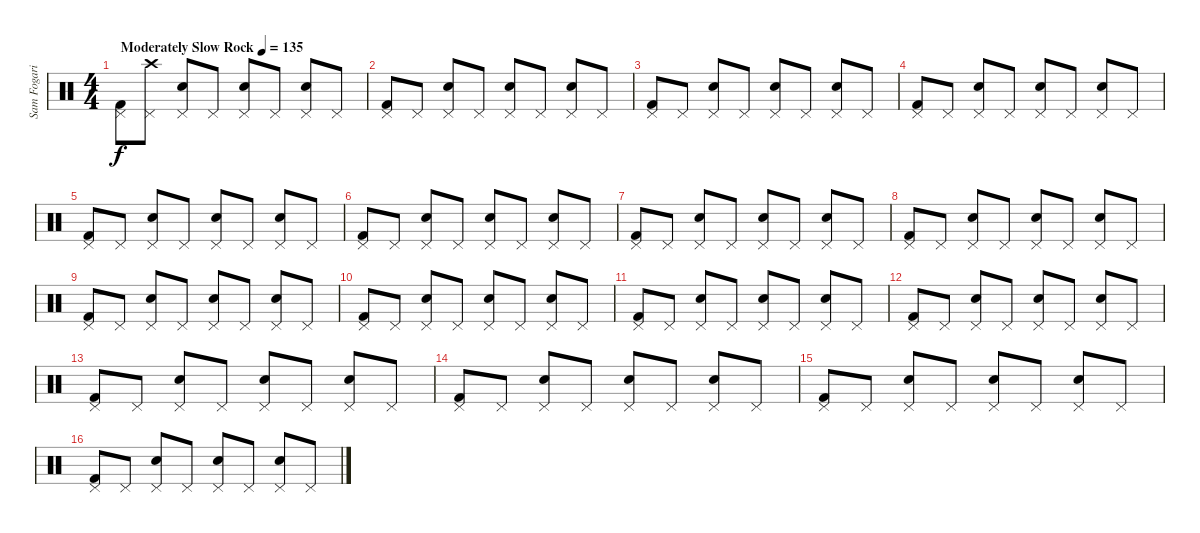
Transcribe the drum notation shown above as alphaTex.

\track ("Sam Fogarino" "Sam Fogari") {instrument percussion}
\staff {score}
\articulation defaults
\ts (4 4)
\tempo (135 "Moderately Slow Rock")
\clef neutral
\ks c
("Kick (hit) 2" "Pedal Hi-Hat (hit)").8{dy f} ("Crash high (hit)" "Pedal Hi-Hat (hit)").8 ("Electric Snare (hit)" "Pedal Hi-Hat (hit)").8 "Pedal Hi-Hat (hit)".8 ("Electric Snare (hit)" "Pedal Hi-Hat (hit)").8 "Pedal Hi-Hat (hit)".8 ("Electric Snare (hit)" "Pedal Hi-Hat (hit)").8 "Pedal Hi-Hat (hit)".8 |
("Kick (hit) 2" "Pedal Hi-Hat (hit)").8 "Pedal Hi-Hat (hit)".8 ("Electric Snare (hit)" "Pedal Hi-Hat (hit)").8 "Pedal Hi-Hat (hit)".8 ("Electric Snare (hit)" "Pedal Hi-Hat (hit)").8 "Pedal Hi-Hat (hit)".8 ("Electric Snare (hit)" "Pedal Hi-Hat (hit)").8 "Pedal Hi-Hat (hit)".8 |
("Kick (hit) 2" "Pedal Hi-Hat (hit)").8 "Pedal Hi-Hat (hit)".8 ("Electric Snare (hit)" "Pedal Hi-Hat (hit)").8 "Pedal Hi-Hat (hit)".8 ("Electric Snare (hit)" "Pedal Hi-Hat (hit)").8 "Pedal Hi-Hat (hit)".8 ("Electric Snare (hit)" "Pedal Hi-Hat (hit)").8 "Pedal Hi-Hat (hit)".8 |
("Kick (hit) 2" "Pedal Hi-Hat (hit)").8 "Pedal Hi-Hat (hit)".8 ("Electric Snare (hit)" "Pedal Hi-Hat (hit)").8 "Pedal Hi-Hat (hit)".8 ("Electric Snare (hit)" "Pedal Hi-Hat (hit)").8 "Pedal Hi-Hat (hit)".8 ("Electric Snare (hit)" "Pedal Hi-Hat (hit)").8 "Pedal Hi-Hat (hit)".8 |
("Kick (hit) 2" "Pedal Hi-Hat (hit)").8 "Pedal Hi-Hat (hit)".8 ("Electric Snare (hit)" "Pedal Hi-Hat (hit)").8 "Pedal Hi-Hat (hit)".8 ("Electric Snare (hit)" "Pedal Hi-Hat (hit)").8 "Pedal Hi-Hat (hit)".8 ("Electric Snare (hit)" "Pedal Hi-Hat (hit)").8 "Pedal Hi-Hat (hit)".8 |
("Kick (hit) 2" "Pedal Hi-Hat (hit)").8 "Pedal Hi-Hat (hit)".8 ("Electric Snare (hit)" "Pedal Hi-Hat (hit)").8 "Pedal Hi-Hat (hit)".8 ("Electric Snare (hit)" "Pedal Hi-Hat (hit)").8 "Pedal Hi-Hat (hit)".8 ("Electric Snare (hit)" "Pedal Hi-Hat (hit)").8 "Pedal Hi-Hat (hit)".8 |
("Kick (hit) 2" "Pedal Hi-Hat (hit)").8 "Pedal Hi-Hat (hit)".8 ("Electric Snare (hit)" "Pedal Hi-Hat (hit)").8 "Pedal Hi-Hat (hit)".8 ("Electric Snare (hit)" "Pedal Hi-Hat (hit)").8 "Pedal Hi-Hat (hit)".8 ("Electric Snare (hit)" "Pedal Hi-Hat (hit)").8 "Pedal Hi-Hat (hit)".8 |
("Kick (hit) 2" "Pedal Hi-Hat (hit)").8 "Pedal Hi-Hat (hit)".8 ("Electric Snare (hit)" "Pedal Hi-Hat (hit)").8 "Pedal Hi-Hat (hit)".8 ("Electric Snare (hit)" "Pedal Hi-Hat (hit)").8 "Pedal Hi-Hat (hit)".8 ("Electric Snare (hit)" "Pedal Hi-Hat (hit)").8 "Pedal Hi-Hat (hit)".8 |
("Kick (hit) 2" "Pedal Hi-Hat (hit)").8 "Pedal Hi-Hat (hit)".8 ("Electric Snare (hit)" "Pedal Hi-Hat (hit)").8 "Pedal Hi-Hat (hit)".8 ("Electric Snare (hit)" "Pedal Hi-Hat (hit)").8 "Pedal Hi-Hat (hit)".8 ("Electric Snare (hit)" "Pedal Hi-Hat (hit)").8 "Pedal Hi-Hat (hit)".8 |
("Kick (hit) 2" "Pedal Hi-Hat (hit)").8 "Pedal Hi-Hat (hit)".8 ("Electric Snare (hit)" "Pedal Hi-Hat (hit)").8 "Pedal Hi-Hat (hit)".8 ("Electric Snare (hit)" "Pedal Hi-Hat (hit)").8 "Pedal Hi-Hat (hit)".8 ("Electric Snare (hit)" "Pedal Hi-Hat (hit)").8 "Pedal Hi-Hat (hit)".8 |
("Kick (hit) 2" "Pedal Hi-Hat (hit)").8 "Pedal Hi-Hat (hit)".8 ("Electric Snare (hit)" "Pedal Hi-Hat (hit)").8 "Pedal Hi-Hat (hit)".8 ("Electric Snare (hit)" "Pedal Hi-Hat (hit)").8 "Pedal Hi-Hat (hit)".8 ("Electric Snare (hit)" "Pedal Hi-Hat (hit)").8 "Pedal Hi-Hat (hit)".8 |
("Kick (hit) 2" "Pedal Hi-Hat (hit)").8 "Pedal Hi-Hat (hit)".8 ("Electric Snare (hit)" "Pedal Hi-Hat (hit)").8 "Pedal Hi-Hat (hit)".8 ("Electric Snare (hit)" "Pedal Hi-Hat (hit)").8 "Pedal Hi-Hat (hit)".8 ("Electric Snare (hit)" "Pedal Hi-Hat (hit)").8 "Pedal Hi-Hat (hit)".8 |
("Kick (hit) 2" "Pedal Hi-Hat (hit)").8 "Pedal Hi-Hat (hit)".8 ("Electric Snare (hit)" "Pedal Hi-Hat (hit)").8 "Pedal Hi-Hat (hit)".8 ("Electric Snare (hit)" "Pedal Hi-Hat (hit)").8 "Pedal Hi-Hat (hit)".8 ("Electric Snare (hit)" "Pedal Hi-Hat (hit)").8 "Pedal Hi-Hat (hit)".8 |
("Kick (hit) 2" "Pedal Hi-Hat (hit)").8 "Pedal Hi-Hat (hit)".8 ("Electric Snare (hit)" "Pedal Hi-Hat (hit)").8 "Pedal Hi-Hat (hit)".8 ("Electric Snare (hit)" "Pedal Hi-Hat (hit)").8 "Pedal Hi-Hat (hit)".8 ("Electric Snare (hit)" "Pedal Hi-Hat (hit)").8 "Pedal Hi-Hat (hit)".8 |
("Kick (hit) 2" "Pedal Hi-Hat (hit)").8 "Pedal Hi-Hat (hit)".8 ("Electric Snare (hit)" "Pedal Hi-Hat (hit)").8 "Pedal Hi-Hat (hit)".8 ("Electric Snare (hit)" "Pedal Hi-Hat (hit)").8 "Pedal Hi-Hat (hit)".8 ("Electric Snare (hit)" "Pedal Hi-Hat (hit)").8 "Pedal Hi-Hat (hit)".8 |
("Kick (hit) 2" "Pedal Hi-Hat (hit)").8 "Pedal Hi-Hat (hit)".8 ("Electric Snare (hit)" "Pedal Hi-Hat (hit)").8 "Pedal Hi-Hat (hit)".8 ("Electric Snare (hit)" "Pedal Hi-Hat (hit)").8 "Pedal Hi-Hat (hit)".8 ("Electric Snare (hit)" "Pedal Hi-Hat (hit)").8 "Pedal Hi-Hat (hit)".8
